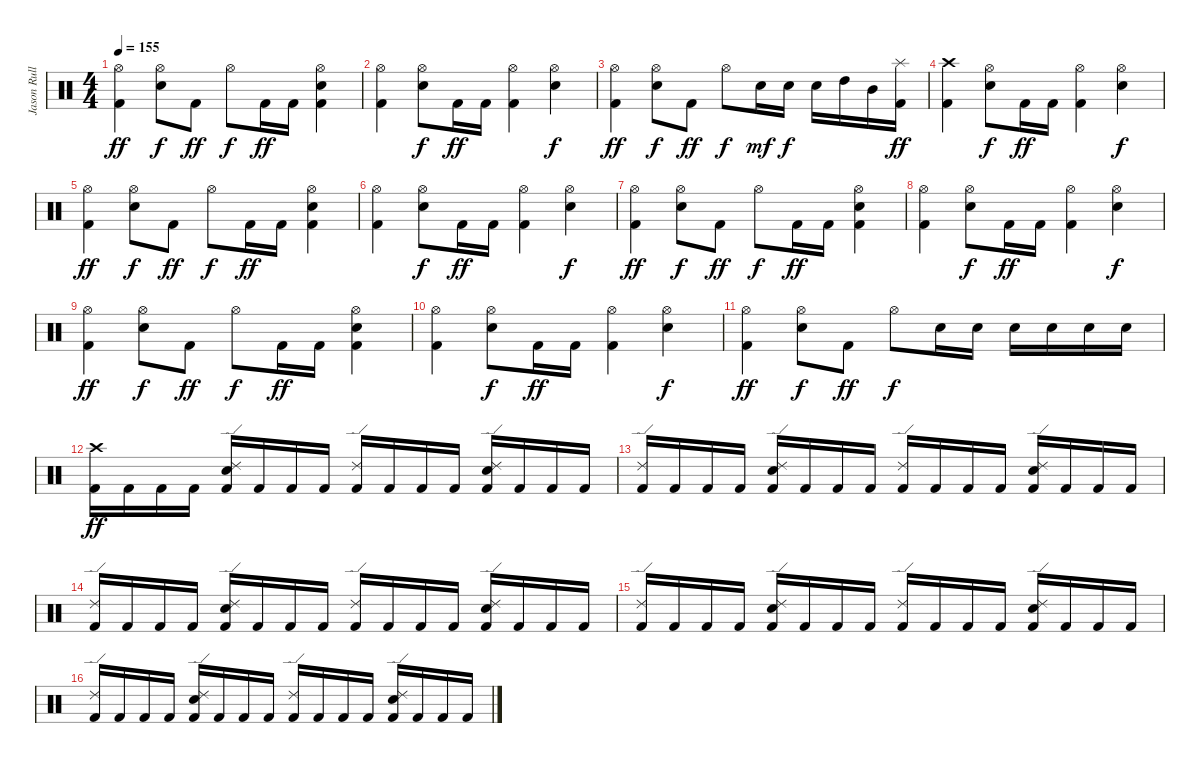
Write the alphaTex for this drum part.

\track ("Jason Rullo" "Jason Rull") {instrument percussion}
\staff {score}
\articulation defaults
\ts (4 4)
\tempo 155
\clef neutral
\ks c
("Hi-Hat (open)" "Kick (hit) 2").4{dy ff} ("Hi-Hat (open)" "Electric Snare (hit)").8{dy f} "Kick (hit) 2".8{dy ff} "Hi-Hat (open)".8{dy f} "Kick (hit) 2".16{dy ff} "Kick (hit) 2".16 ("Hi-Hat (open)" "Electric Snare (hit)" "Kick (hit) 2").4 |
("Hi-Hat (open)" "Kick (hit) 2").4 ("Hi-Hat (open)" "Electric Snare (hit)").8{dy f} "Kick (hit) 2".16{dy ff} "Kick (hit) 2".16 ("Hi-Hat (open)" "Kick (hit) 2").4 ("Hi-Hat (open)" "Electric Snare (hit)").4{dy f} |
("Hi-Hat (open)" "Kick (hit) 2").4{dy ff} ("Hi-Hat (open)" "Electric Snare (hit)").8{dy f} "Kick (hit) 2".8{dy ff} "Hi-Hat (open)".8{dy f} "Electric Snare (hit)".16{dy mf} "Electric Snare (hit)".16{dy f} "Electric Snare (hit)".16 "High Tom (hit)".16 "Mid Tom (hit)".16 ("Splash (hit)" "Kick (hit) 2").16{dy ff} |
("Crash high (hit)" "Kick (hit) 2").4 ("Hi-Hat (open)" "Electric Snare (hit)").8{dy f} "Kick (hit) 2".16{dy ff} "Kick (hit) 2".16 ("Hi-Hat (open)" "Kick (hit) 2").4 ("Hi-Hat (open)" "Electric Snare (hit)").4{dy f} |
("Hi-Hat (open)" "Kick (hit) 2").4{dy ff} ("Hi-Hat (open)" "Electric Snare (hit)").8{dy f} "Kick (hit) 2".8{dy ff} "Hi-Hat (open)".8{dy f} "Kick (hit) 2".16{dy ff} "Kick (hit) 2".16 ("Hi-Hat (open)" "Electric Snare (hit)" "Kick (hit) 2").4 |
("Hi-Hat (open)" "Kick (hit) 2").4 ("Hi-Hat (open)" "Electric Snare (hit)").8{dy f} "Kick (hit) 2".16{dy ff} "Kick (hit) 2".16 ("Hi-Hat (open)" "Kick (hit) 2").4 ("Hi-Hat (open)" "Electric Snare (hit)").4{dy f} |
("Hi-Hat (open)" "Kick (hit) 2").4{dy ff} ("Hi-Hat (open)" "Electric Snare (hit)").8{dy f} "Kick (hit) 2".8{dy ff} "Hi-Hat (open)".8{dy f} "Kick (hit) 2".16{dy ff} "Kick (hit) 2".16 ("Hi-Hat (open)" "Electric Snare (hit)" "Kick (hit) 2").4 |
("Hi-Hat (open)" "Kick (hit) 2").4 ("Hi-Hat (open)" "Electric Snare (hit)").8{dy f} "Kick (hit) 2".16{dy ff} "Kick (hit) 2".16 ("Hi-Hat (open)" "Kick (hit) 2").4 ("Hi-Hat (open)" "Electric Snare (hit)").4{dy f} |
("Hi-Hat (open)" "Kick (hit) 2").4{dy ff} ("Hi-Hat (open)" "Electric Snare (hit)").8{dy f} "Kick (hit) 2".8{dy ff} "Hi-Hat (open)".8{dy f} "Kick (hit) 2".16{dy ff} "Kick (hit) 2".16 ("Hi-Hat (open)" "Electric Snare (hit)" "Kick (hit) 2").4 |
("Hi-Hat (open)" "Kick (hit) 2").4 ("Hi-Hat (open)" "Electric Snare (hit)").8{dy f} "Kick (hit) 2".16{dy ff} "Kick (hit) 2".16 ("Hi-Hat (open)" "Kick (hit) 2").4 ("Hi-Hat (open)" "Electric Snare (hit)").4{dy f} |
("Hi-Hat (open)" "Kick (hit) 2").4{dy ff} ("Hi-Hat (open)" "Electric Snare (hit)").8{dy f} "Kick (hit) 2".8{dy ff} "Hi-Hat (open)".8{dy f} "Electric Snare (hit)".16 "Electric Snare (hit)".16 "Electric Snare (hit)".16 "Electric Snare (hit)".16 "Electric Snare (hit)".16 "Electric Snare (hit)".16 |
("Crash high (hit)" "Kick (hit) 2").16{dy ff} "Kick (hit) 2".16 "Kick (hit) 2".16 "Kick (hit) 2".16 ("Ride (edge) 2" "Electric Snare (hit)" "Kick (hit) 2").16 "Kick (hit) 2".16 "Kick (hit) 2".16 "Kick (hit) 2".16 ("Ride (edge) 2" "Kick (hit) 2").16 "Kick (hit) 2".16 "Kick (hit) 2".16 "Kick (hit) 2".16 ("Ride (edge) 2" "Electric Snare (hit)" "Kick (hit) 2").16 "Kick (hit) 2".16 "Kick (hit) 2".16 "Kick (hit) 2".16 |
("Ride (edge) 2" "Kick (hit) 2").16 "Kick (hit) 2".16 "Kick (hit) 2".16 "Kick (hit) 2".16 ("Ride (edge) 2" "Electric Snare (hit)" "Kick (hit) 2").16 "Kick (hit) 2".16 "Kick (hit) 2".16 "Kick (hit) 2".16 ("Ride (edge) 2" "Kick (hit) 2").16 "Kick (hit) 2".16 "Kick (hit) 2".16 "Kick (hit) 2".16 ("Ride (edge) 2" "Electric Snare (hit)" "Kick (hit) 2").16 "Kick (hit) 2".16 "Kick (hit) 2".16 "Kick (hit) 2".16 |
("Ride (edge) 2" "Kick (hit) 2").16 "Kick (hit) 2".16 "Kick (hit) 2".16 "Kick (hit) 2".16 ("Ride (edge) 2" "Electric Snare (hit)" "Kick (hit) 2").16 "Kick (hit) 2".16 "Kick (hit) 2".16 "Kick (hit) 2".16 ("Ride (edge) 2" "Kick (hit) 2").16 "Kick (hit) 2".16 "Kick (hit) 2".16 "Kick (hit) 2".16 ("Ride (edge) 2" "Electric Snare (hit)" "Kick (hit) 2").16 "Kick (hit) 2".16 "Kick (hit) 2".16 "Kick (hit) 2".16 |
("Ride (edge) 2" "Kick (hit) 2").16 "Kick (hit) 2".16 "Kick (hit) 2".16 "Kick (hit) 2".16 ("Ride (edge) 2" "Electric Snare (hit)" "Kick (hit) 2").16 "Kick (hit) 2".16 "Kick (hit) 2".16 "Kick (hit) 2".16 ("Ride (edge) 2" "Kick (hit) 2").16 "Kick (hit) 2".16 "Kick (hit) 2".16 "Kick (hit) 2".16 ("Ride (edge) 2" "Electric Snare (hit)" "Kick (hit) 2").16 "Kick (hit) 2".16 "Kick (hit) 2".16 "Kick (hit) 2".16 |
("Ride (edge) 2" "Kick (hit) 2").16 "Kick (hit) 2".16 "Kick (hit) 2".16 "Kick (hit) 2".16 ("Ride (edge) 2" "Electric Snare (hit)" "Kick (hit) 2").16 "Kick (hit) 2".16 "Kick (hit) 2".16 "Kick (hit) 2".16 ("Ride (edge) 2" "Kick (hit) 2").16 "Kick (hit) 2".16 "Kick (hit) 2".16 "Kick (hit) 2".16 ("Ride (edge) 2" "Electric Snare (hit)" "Kick (hit) 2").16 "Kick (hit) 2".16 "Kick (hit) 2".16 "Kick (hit) 2".16
